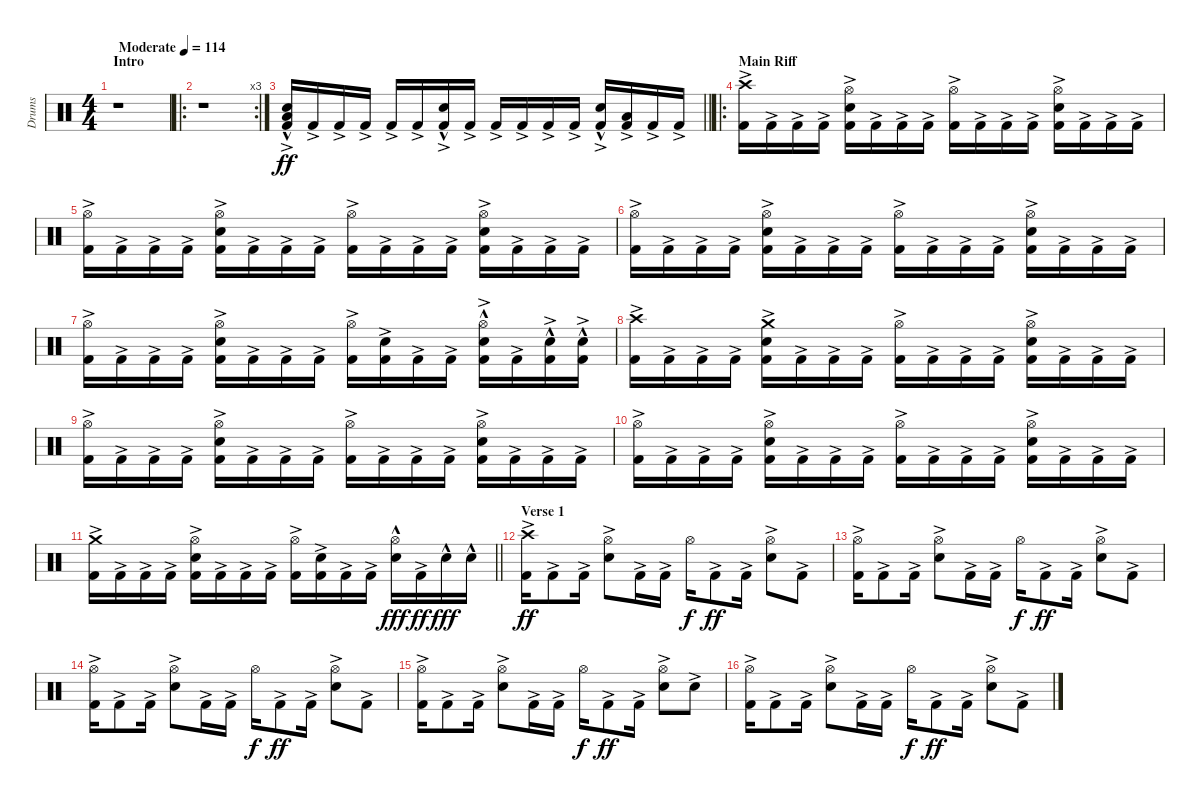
\track ("Drums" "Drums") {instrument percussion}
\staff {score}
\articulation defaults
\ts (4 4)
\section ("" "Intro")
\tempo (114 "Moderate")
\clef neutral
\ks c
r.1{dy ff} |
\ro
\rc 3
r.1 |
\barLineRight lightlight
("Electric Snare (hit)"{hac} "Low Floor Tom (hit)"{hac} "Kick (hit) 2"{ac}).16 "Kick (hit) 2"{ac}.16 "Kick (hit) 2"{ac}.16 "Kick (hit) 2"{ac}.16 "Kick (hit) 2"{ac}.16 "Kick (hit) 2"{ac}.16 ("Electric Snare (hit)"{hac} "Kick (hit) 2"{ac}).16 "Kick (hit) 2"{ac}.16 "Kick (hit) 2"{ac}.16 "Kick (hit) 2"{ac}.16 "Kick (hit) 2"{ac}.16 "Kick (hit) 2"{ac}.16 ("Electric Snare (hit)"{hac} "Kick (hit) 2"{ac}).16 ("Low Floor Tom (hit)"{ac} "Kick (hit) 2"{ac}).16 "Kick (hit) 2"{ac}.16 "Kick (hit) 2"{ac}.16 |
\ro
\section ("" "Main Riff")
("Crash high (hit)" "Kick (hit) 2"{ac}).16 "Kick (hit) 2"{ac}.16 "Kick (hit) 2"{ac}.16 "Kick (hit) 2"{ac}.16 ("Hi-Hat (open)" "Electric Snare (hit)"{ac} "Kick (hit) 2"{ac}).16 "Kick (hit) 2"{ac}.16 "Kick (hit) 2"{ac}.16 "Kick (hit) 2"{ac}.16 ("Hi-Hat (open)" "Kick (hit) 2"{ac}).16 "Kick (hit) 2"{ac}.16 "Kick (hit) 2"{ac}.16 "Kick (hit) 2"{ac}.16 ("Hi-Hat (open)" "Electric Snare (hit)"{ac} "Kick (hit) 2"{ac}).16 "Kick (hit) 2"{ac}.16 "Kick (hit) 2"{ac}.16 "Kick (hit) 2"{ac}.16 |
("Hi-Hat (open)" "Kick (hit) 2"{ac}).16 "Kick (hit) 2"{ac}.16 "Kick (hit) 2"{ac}.16 "Kick (hit) 2"{ac}.16 ("Hi-Hat (open)" "Electric Snare (hit)"{ac} "Kick (hit) 2"{ac}).16 "Kick (hit) 2"{ac}.16 "Kick (hit) 2"{ac}.16 "Kick (hit) 2"{ac}.16 ("Hi-Hat (open)" "Kick (hit) 2"{ac}).16 "Kick (hit) 2"{ac}.16 "Kick (hit) 2"{ac}.16 "Kick (hit) 2"{ac}.16 ("Hi-Hat (open)" "Electric Snare (hit)"{ac} "Kick (hit) 2"{ac}).16 "Kick (hit) 2"{ac}.16 "Kick (hit) 2"{ac}.16 "Kick (hit) 2"{ac}.16 |
("Hi-Hat (open)" "Kick (hit) 2"{ac}).16 "Kick (hit) 2"{ac}.16 "Kick (hit) 2"{ac}.16 "Kick (hit) 2"{ac}.16 ("Hi-Hat (open)" "Electric Snare (hit)"{ac} "Kick (hit) 2"{ac}).16 "Kick (hit) 2"{ac}.16 "Kick (hit) 2"{ac}.16 "Kick (hit) 2"{ac}.16 ("Hi-Hat (open)" "Kick (hit) 2"{ac}).16 "Kick (hit) 2"{ac}.16 "Kick (hit) 2"{ac}.16 "Kick (hit) 2"{ac}.16 ("Hi-Hat (open)" "Electric Snare (hit)"{ac} "Kick (hit) 2"{ac}).16 "Kick (hit) 2"{ac}.16 "Kick (hit) 2"{ac}.16 "Kick (hit) 2"{ac}.16 |
("Hi-Hat (open)" "Kick (hit) 2"{ac}).16 "Kick (hit) 2"{ac}.16 "Kick (hit) 2"{ac}.16 "Kick (hit) 2"{ac}.16 ("Hi-Hat (open)" "Electric Snare (hit)"{ac} "Kick (hit) 2"{ac}).16 "Kick (hit) 2"{ac}.16 "Kick (hit) 2"{ac}.16 "Kick (hit) 2"{ac}.16 ("Hi-Hat (open)" "Kick (hit) 2"{ac}).16 ("Electric Snare (hit)"{ac} "Kick (hit) 2"{ac}).16 "Kick (hit) 2"{ac}.16 "Kick (hit) 2"{ac}.16 ("Hi-Hat (open)" "Electric Snare (hit)"{hac} "Kick (hit) 2"{ac}).16 "Kick (hit) 2"{ac}.16 ("Electric Snare (hit)"{hac} "Kick (hit) 2"{ac}).16 ("Electric Snare (hit)"{hac} "Kick (hit) 2"{ac}).16 |
("Crash high (hit)" "Kick (hit) 2"{ac}).16 "Kick (hit) 2"{ac}.16 "Kick (hit) 2"{ac}.16 "Kick (hit) 2"{ac}.16 ("Crash medium (hit)" "Electric Snare (hit)"{ac} "Kick (hit) 2"{ac}).16 "Kick (hit) 2"{ac}.16 "Kick (hit) 2"{ac}.16 "Kick (hit) 2"{ac}.16 ("Hi-Hat (open)" "Kick (hit) 2"{ac}).16 "Kick (hit) 2"{ac}.16 "Kick (hit) 2"{ac}.16 "Kick (hit) 2"{ac}.16 ("Hi-Hat (open)" "Electric Snare (hit)"{ac} "Kick (hit) 2"{ac}).16 "Kick (hit) 2"{ac}.16 "Kick (hit) 2"{ac}.16 "Kick (hit) 2"{ac}.16 |
("Hi-Hat (open)" "Kick (hit) 2"{ac}).16 "Kick (hit) 2"{ac}.16 "Kick (hit) 2"{ac}.16 "Kick (hit) 2"{ac}.16 ("Hi-Hat (open)" "Electric Snare (hit)"{ac} "Kick (hit) 2"{ac}).16 "Kick (hit) 2"{ac}.16 "Kick (hit) 2"{ac}.16 "Kick (hit) 2"{ac}.16 ("Hi-Hat (open)" "Kick (hit) 2"{ac}).16 "Kick (hit) 2"{ac}.16 "Kick (hit) 2"{ac}.16 "Kick (hit) 2"{ac}.16 ("Hi-Hat (open)" "Electric Snare (hit)"{ac} "Kick (hit) 2"{ac}).16 "Kick (hit) 2"{ac}.16 "Kick (hit) 2"{ac}.16 "Kick (hit) 2"{ac}.16 |
("Hi-Hat (open)" "Kick (hit) 2"{ac}).16 "Kick (hit) 2"{ac}.16 "Kick (hit) 2"{ac}.16 "Kick (hit) 2"{ac}.16 ("Hi-Hat (open)" "Electric Snare (hit)"{ac} "Kick (hit) 2"{ac}).16 "Kick (hit) 2"{ac}.16 "Kick (hit) 2"{ac}.16 "Kick (hit) 2"{ac}.16 ("Hi-Hat (open)" "Kick (hit) 2"{ac}).16 "Kick (hit) 2"{ac}.16 "Kick (hit) 2"{ac}.16 "Kick (hit) 2"{ac}.16 ("Hi-Hat (open)" "Electric Snare (hit)"{ac} "Kick (hit) 2"{ac}).16 "Kick (hit) 2"{ac}.16 "Kick (hit) 2"{ac}.16 "Kick (hit) 2"{ac}.16 |
\barLineRight lightlight
("Crash medium (hit)" "Kick (hit) 2"{ac}).16 "Kick (hit) 2"{ac}.16 "Kick (hit) 2"{ac}.16 "Kick (hit) 2"{ac}.16 ("Hi-Hat (open)" "Electric Snare (hit)"{ac} "Kick (hit) 2"{ac}).16 "Kick (hit) 2"{ac}.16 "Kick (hit) 2"{ac}.16 "Kick (hit) 2"{ac}.16 ("Hi-Hat (open)" "Kick (hit) 2"{ac}).16 ("Electric Snare (hit)"{ac} "Kick (hit) 2"{ac}).16 "Kick (hit) 2"{ac}.16 "Kick (hit) 2"{ac}.16 ("Hi-Hat (open)" "Electric Snare (hit)"{hac}).16{dy fff} "Kick (hit) 2"{ac}.16{dy ff} "Electric Snare (hit)"{hac}.16{dy fff} "Electric Snare (hit)"{hac}.16 |
\section ("" "Verse 1")
("Crash high (hit)" "Kick (hit) 2"{ac}).16{dy ff} "Kick (hit) 2"{ac}.8 "Kick (hit) 2"{ac}.16 ("Hi-Hat (open)" "Electric Snare (hit)"{ac}).8 "Kick (hit) 2"{ac}.16 "Kick (hit) 2"{ac}.16 "Hi-Hat (open)".16{dy f} "Kick (hit) 2"{ac}.8{dy ff} "Kick (hit) 2"{ac}.16 ("Hi-Hat (open)" "Electric Snare (hit)"{ac}).8 "Kick (hit) 2"{ac}.8 |
("Hi-Hat (open)" "Kick (hit) 2"{ac}).16 "Kick (hit) 2"{ac}.8 "Kick (hit) 2"{ac}.16 ("Hi-Hat (open)" "Electric Snare (hit)"{ac}).8 "Kick (hit) 2"{ac}.16 "Kick (hit) 2"{ac}.16 "Hi-Hat (open)".16{dy f} "Kick (hit) 2"{ac}.8{dy ff} "Kick (hit) 2"{ac}.16 ("Hi-Hat (open)" "Electric Snare (hit)"{ac}).8 "Kick (hit) 2"{ac}.8 |
("Hi-Hat (open)" "Kick (hit) 2"{ac}).16 "Kick (hit) 2"{ac}.8 "Kick (hit) 2"{ac}.16 ("Hi-Hat (open)" "Electric Snare (hit)"{ac}).8 "Kick (hit) 2"{ac}.16 "Kick (hit) 2"{ac}.16 "Hi-Hat (open)".16{dy f} "Kick (hit) 2"{ac}.8{dy ff} "Kick (hit) 2"{ac}.16 ("Hi-Hat (open)" "Electric Snare (hit)"{ac}).8 "Kick (hit) 2"{ac}.8 |
("Hi-Hat (open)" "Kick (hit) 2"{ac}).16 "Kick (hit) 2"{ac}.8 "Kick (hit) 2"{ac}.16 ("Hi-Hat (open)" "Electric Snare (hit)"{ac}).8 "Kick (hit) 2"{ac}.16 "Kick (hit) 2"{ac}.16 "Hi-Hat (open)".16{dy f} "Kick (hit) 2"{ac}.8{dy ff} "Kick (hit) 2"{ac}.16 ("Hi-Hat (open)" "Electric Snare (hit)"{ac}).8 "Electric Snare (hit)"{ac}.8 |
("Hi-Hat (open)" "Kick (hit) 2"{ac}).16 "Kick (hit) 2"{ac}.8 "Kick (hit) 2"{ac}.16 ("Hi-Hat (open)" "Electric Snare (hit)"{ac}).8 "Kick (hit) 2"{ac}.16 "Kick (hit) 2"{ac}.16 "Hi-Hat (open)".16{dy f} "Kick (hit) 2"{ac}.8{dy ff} "Kick (hit) 2"{ac}.16 ("Hi-Hat (open)" "Electric Snare (hit)"{ac}).8 "Kick (hit) 2"{ac}.8
